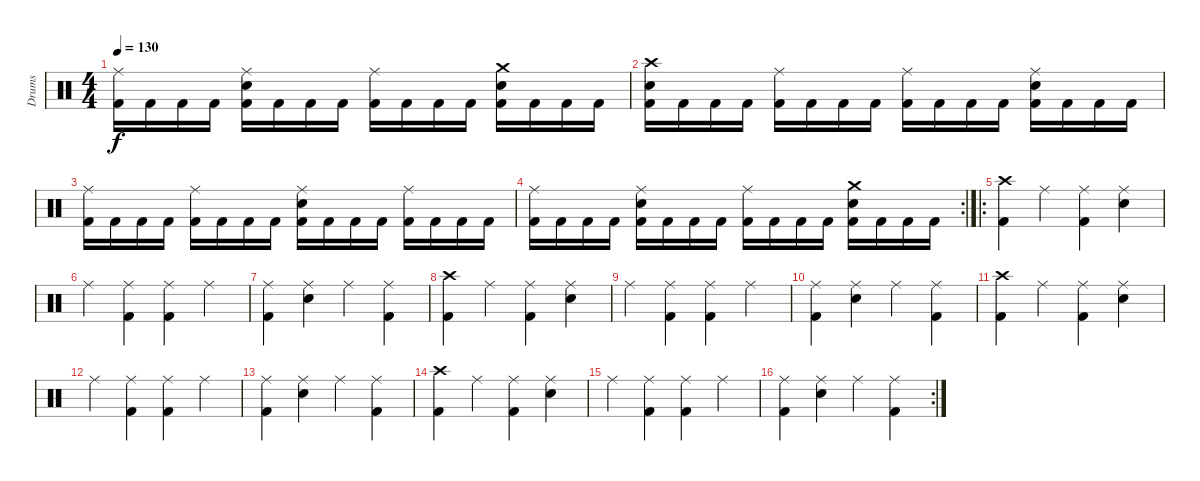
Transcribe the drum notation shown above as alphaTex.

\track ("Drums" "Drums") {instrument percussion}
\staff {score}
\articulation defaults
\ts (4 4)
\tempo 130
\clef neutral
\ks c
("Ride (middle)" "Kick (hit) 2").16{dy f} "Kick (hit) 2".16 "Kick (hit) 2".16 "Kick (hit) 2".16 ("Ride (middle)" "Electric Snare (hit)" "Kick (hit) 2").16 "Kick (hit) 2".16 "Kick (hit) 2".16 "Kick (hit) 2".16 ("Ride (middle)" "Kick (hit) 2").16 "Kick (hit) 2".16 "Kick (hit) 2".16 "Kick (hit) 2".16 ("Crash medium (hit)" "Electric Snare (hit)" "Kick (hit) 2").16 "Kick (hit) 2".16 "Kick (hit) 2".16 "Kick (hit) 2".16 |
("Crash high (hit)" "Electric Snare (hit)" "Kick (hit) 2").16 "Kick (hit) 2".16 "Kick (hit) 2".16 "Kick (hit) 2".16 ("Ride (middle)" "Kick (hit) 2").16 "Kick (hit) 2".16 "Kick (hit) 2".16 "Kick (hit) 2".16 ("Ride (middle)" "Kick (hit) 2").16 "Kick (hit) 2".16 "Kick (hit) 2".16 "Kick (hit) 2".16 ("Ride (middle)" "Electric Snare (hit)" "Kick (hit) 2").16 "Kick (hit) 2".16 "Kick (hit) 2".16 "Kick (hit) 2".16 |
("Ride (middle)" "Kick (hit) 2").16 "Kick (hit) 2".16 "Kick (hit) 2".16 "Kick (hit) 2".16 ("Ride (middle)" "Kick (hit) 2").16 "Kick (hit) 2".16 "Kick (hit) 2".16 "Kick (hit) 2".16 ("Ride (middle)" "Electric Snare (hit)" "Kick (hit) 2").16 "Kick (hit) 2".16 "Kick (hit) 2".16 "Kick (hit) 2".16 ("Ride (middle)" "Kick (hit) 2").16 "Kick (hit) 2".16 "Kick (hit) 2".16 "Kick (hit) 2".16 |
\rc 2
("Ride (middle)" "Kick (hit) 2").16 "Kick (hit) 2".16 "Kick (hit) 2".16 "Kick (hit) 2".16 ("Ride (middle)" "Electric Snare (hit)" "Kick (hit) 2").16 "Kick (hit) 2".16 "Kick (hit) 2".16 "Kick (hit) 2".16 ("Ride (middle)" "Kick (hit) 2").16 "Kick (hit) 2".16 "Kick (hit) 2".16 "Kick (hit) 2".16 ("Crash medium (hit)" "Electric Snare (hit)" "Kick (hit) 2").16 "Kick (hit) 2".16 "Kick (hit) 2".16 "Kick (hit) 2".16 |
\ro
("Crash high (hit)" "Kick (hit) 2").4 "Ride (middle)".4 ("Ride (middle)" "Kick (hit) 2").4 ("Ride (middle)" "Electric Snare (hit)").4 |
"Ride (middle)".4 ("Ride (middle)" "Kick (hit) 2").4 ("Ride (middle)" "Kick (hit) 2").4 "Ride (middle)".4 |
("Ride (middle)" "Kick (hit) 2").4 ("Ride (middle)" "Electric Snare (hit)").4 "Ride (middle)".4 ("Ride (middle)" "Kick (hit) 2").4 |
("Crash high (hit)" "Kick (hit) 2").4 "Ride (middle)".4 ("Ride (middle)" "Kick (hit) 2").4 ("Ride (middle)" "Electric Snare (hit)").4 |
"Ride (middle)".4 ("Ride (middle)" "Kick (hit) 2").4 ("Ride (middle)" "Kick (hit) 2").4 "Ride (middle)".4 |
("Ride (middle)" "Kick (hit) 2").4 ("Ride (middle)" "Electric Snare (hit)").4 "Ride (middle)".4 ("Ride (middle)" "Kick (hit) 2").4 |
("Crash high (hit)" "Kick (hit) 2").4 "Ride (middle)".4 ("Ride (middle)" "Kick (hit) 2").4 ("Ride (middle)" "Electric Snare (hit)").4 |
"Ride (middle)".4 ("Ride (middle)" "Kick (hit) 2").4 ("Ride (middle)" "Kick (hit) 2").4 "Ride (middle)".4 |
("Ride (middle)" "Kick (hit) 2").4 ("Ride (middle)" "Electric Snare (hit)").4 "Ride (middle)".4 ("Ride (middle)" "Kick (hit) 2").4 |
("Crash high (hit)" "Kick (hit) 2").4 "Ride (middle)".4 ("Ride (middle)" "Kick (hit) 2").4 ("Ride (middle)" "Electric Snare (hit)").4 |
"Ride (middle)".4 ("Ride (middle)" "Kick (hit) 2").4 ("Ride (middle)" "Kick (hit) 2").4 "Ride (middle)".4 |
\rc 2
("Ride (middle)" "Kick (hit) 2").4 ("Ride (middle)" "Electric Snare (hit)").4 "Ride (middle)".4 ("Ride (middle)" "Kick (hit) 2").4
